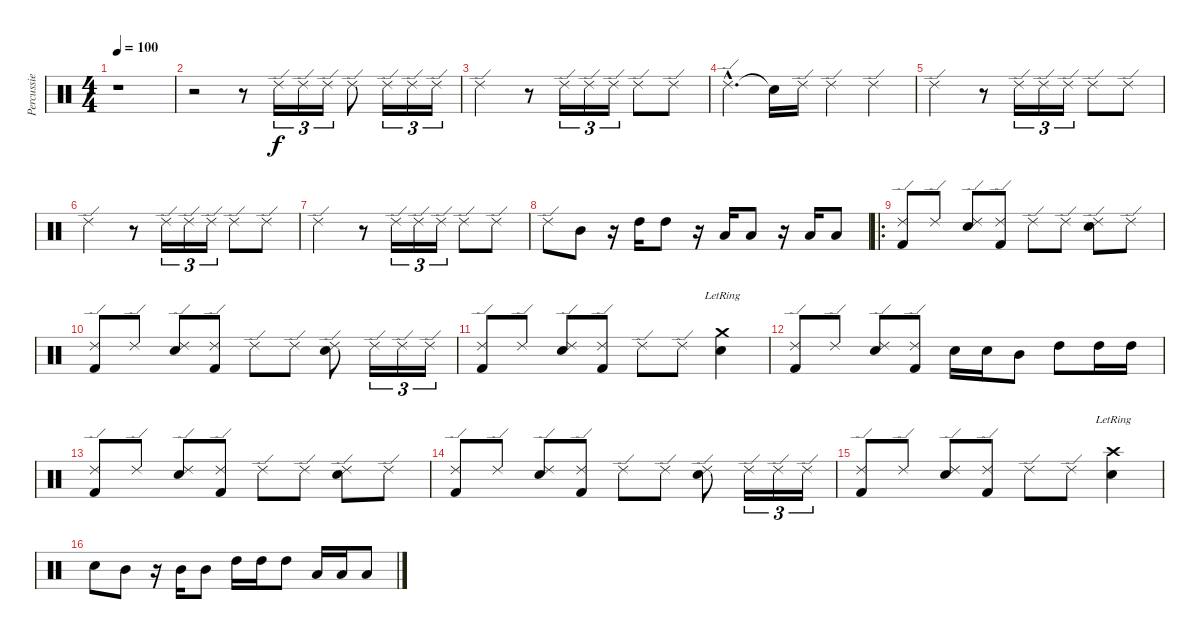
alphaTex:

\track ("Percussie" "Percussie") {instrument percussion}
\staff {score}
\articulation defaults
\ts (4 4)
\tempo 100
\clef neutral
\ks c
r.1{dy f} |
r.2 r.8 "Ride (edge) 2".16{tu (3 2)} "Ride (edge) 2".16{tu (3 2)} "Ride (edge) 2".16{tu (3 2)} "Ride (edge) 2".8 "Ride (edge) 2".16{tu (3 2)} "Ride (edge) 2".16{tu (3 2)} "Ride (edge) 2".16{tu (3 2)} |
"Ride (edge) 2".2 r.8 "Ride (edge) 2".16{tu (3 2)} "Ride (edge) 2".16{tu (3 2)} "Ride (edge) 2".16{tu (3 2)} "Ride (edge) 2".8 "Ride (edge) 2".8 |
"Ride (edge) 2"{hac}.4{d} "Snare (hit)"{t}.16 "Ride (edge) 2".16 "Ride (edge) 2".4 "Ride (edge) 2".4 |
"Ride (edge) 2".2 r.8 "Ride (edge) 2".16{tu (3 2)} "Ride (edge) 2".16{tu (3 2)} "Ride (edge) 2".16{tu (3 2)} "Ride (edge) 2".8 "Ride (edge) 2".8 |
"Ride (edge) 2".2 r.8 "Ride (edge) 2".16{tu (3 2)} "Ride (edge) 2".16{tu (3 2)} "Ride (edge) 2".16{tu (3 2)} "Ride (edge) 2".8 "Ride (edge) 2".8 |
"Ride (edge) 2".2 r.8 "Ride (edge) 2".16{tu (3 2)} "Ride (edge) 2".16{tu (3 2)} "Ride (edge) 2".16{tu (3 2)} "Ride (edge) 2".8 "Ride (edge) 2".8 |
"Ride (edge) 2".8 "Mid Tom (hit)".8 r.16 "High Tom (hit)".16 "High Tom (hit)".8 r.16 "Low Tom (hit)".16 "Low Tom (hit)".8 r.16 "Low Tom (hit)".16 "Low Tom (hit)".8 |
\ro
("Ride (edge) 2" "Kick (hit) 2").8 "Ride (edge) 2".8 ("Ride (edge) 2" "Snare (hit) 2").8 ("Ride (edge) 2" "Kick (hit) 2").8 "Ride (edge) 2".8 "Ride (edge) 2".8 ("Ride (edge) 2" "Snare (hit) 2").8 "Ride (edge) 2".8 |
("Ride (edge) 2" "Kick (hit) 2").8 "Ride (edge) 2".8 ("Ride (edge) 2" "Snare (hit) 2").8 ("Ride (edge) 2" "Kick (hit) 2").8 "Ride (edge) 2".8 "Ride (edge) 2".8 ("Ride (edge) 2" "Snare (hit) 2").8 "Ride (edge) 2".16{tu (3 2)} "Ride (edge) 2".16{tu (3 2)} "Ride (edge) 2".16{tu (3 2)} |
("Ride (edge) 2" "Kick (hit) 2").8 "Ride (edge) 2".8 ("Ride (edge) 2" "Snare (hit) 2").8 ("Ride (edge) 2" "Kick (hit) 2").8 "Ride (edge) 2".8 "Ride (edge) 2".8 ("Crash medium (hit)"{lr} "Snare (hit) 2").4 |
("Ride (edge) 2" "Kick (hit) 2").8 "Ride (edge) 2".8 ("Ride (edge) 2" "Snare (hit) 2").8 ("Ride (edge) 2" "Kick (hit) 2").8 "Snare (hit) 2".16 "Snare (hit) 2".16 "Mid Tom (hit)".8 "High Tom (hit)".8 "High Tom (hit)".16 "High Tom (hit)".16 |
("Ride (edge) 2" "Kick (hit) 2").8 "Ride (edge) 2".8 ("Ride (edge) 2" "Snare (hit) 2").8 ("Ride (edge) 2" "Kick (hit) 2").8 "Ride (edge) 2".8 "Ride (edge) 2".8 ("Ride (edge) 2" "Snare (hit) 2").8 "Ride (edge) 2".8 |
("Ride (edge) 2" "Kick (hit) 2").8 "Ride (edge) 2".8 ("Ride (edge) 2" "Snare (hit) 2").8 ("Ride (edge) 2" "Kick (hit) 2").8 "Ride (edge) 2".8 "Ride (edge) 2".8 ("Ride (edge) 2" "Snare (hit) 2").8 "Ride (edge) 2".16{tu (3 2)} "Ride (edge) 2".16{tu (3 2)} "Ride (edge) 2".16{tu (3 2)} |
("Ride (edge) 2" "Kick (hit) 2").8 "Ride (edge) 2".8 ("Ride (edge) 2" "Snare (hit) 2").8 ("Ride (edge) 2" "Kick (hit) 2").8 "Ride (edge) 2".8 "Ride (edge) 2".8 ("Crash high (hit)"{lr} "Snare (hit) 2").4 |
"Snare (hit) 2".8 "Mid Tom (hit)".8 r.16 "Mid Tom (hit)".16 "Mid Tom (hit)".8 "High Tom (hit)".16 "High Tom (hit)".16 "High Tom (hit)".8 "Low Tom (hit)".16 "Low Tom (hit)".16 "Low Tom (hit)".8
